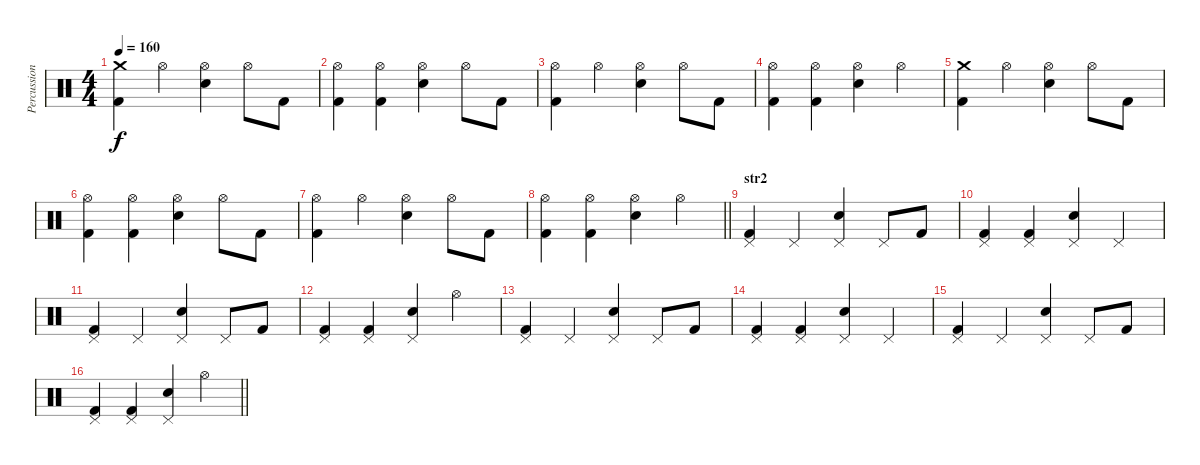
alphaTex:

\track ("Percussioni" "Percussion") {instrument percussion}
\staff {score}
\articulation defaults
\ts (4 4)
\tempo 160
\clef neutral
\ks c
("Crash medium (hit)" "Kick (hit) 2").4{dy f} "Hi-Hat (open)".4 ("Hi-Hat (open)" "Snare (hit) 2").4 "Hi-Hat (open)".8 "Kick (hit) 2".8 |
("Hi-Hat (open)" "Kick (hit) 2").4 ("Hi-Hat (open)" "Kick (hit) 2").4 ("Hi-Hat (open)" "Snare (hit) 2").4 "Hi-Hat (open)".8 "Kick (hit) 2".8 |
("Hi-Hat (open)" "Kick (hit) 2").4 "Hi-Hat (open)".4 ("Hi-Hat (open)" "Snare (hit) 2").4 "Hi-Hat (open)".8 "Kick (hit) 2".8 |
("Hi-Hat (open)" "Kick (hit) 2").4 ("Hi-Hat (open)" "Kick (hit) 2").4 ("Hi-Hat (open)" "Snare (hit) 2").4 "Hi-Hat (open)".4 |
("Crash medium (hit)" "Kick (hit) 2").4 "Hi-Hat (open)".4 ("Hi-Hat (open)" "Snare (hit) 2").4 "Hi-Hat (open)".8 "Kick (hit) 2".8 |
("Hi-Hat (open)" "Kick (hit) 2").4 ("Hi-Hat (open)" "Kick (hit) 2").4 ("Hi-Hat (open)" "Snare (hit) 2").4 "Hi-Hat (open)".8 "Kick (hit) 2".8 |
("Hi-Hat (open)" "Kick (hit) 2").4 "Hi-Hat (open)".4 ("Hi-Hat (open)" "Snare (hit) 2").4 "Hi-Hat (open)".8 "Kick (hit) 2".8 |
\barLineRight lightlight
("Hi-Hat (open)" "Kick (hit) 2").4 ("Hi-Hat (open)" "Kick (hit) 2").4 ("Hi-Hat (open)" "Snare (hit) 2").4 "Hi-Hat (open)".4 |
\section ("" "str2")
("Pedal Hi-Hat (hit)" "Kick (hit) 2").4 "Pedal Hi-Hat (hit)".4 ("Pedal Hi-Hat (hit)" "Snare (hit) 2").4 "Pedal Hi-Hat (hit)".8 "Kick (hit) 2".8 |
("Pedal Hi-Hat (hit)" "Kick (hit) 2").4 ("Pedal Hi-Hat (hit)" "Kick (hit) 2").4 ("Pedal Hi-Hat (hit)" "Snare (hit) 2").4 "Pedal Hi-Hat (hit)".4 |
("Pedal Hi-Hat (hit)" "Kick (hit) 2").4 "Pedal Hi-Hat (hit)".4 ("Pedal Hi-Hat (hit)" "Snare (hit) 2").4 "Pedal Hi-Hat (hit)".8 "Kick (hit) 2".8 |
("Pedal Hi-Hat (hit)" "Kick (hit) 2").4 ("Pedal Hi-Hat (hit)" "Kick (hit) 2").4 ("Pedal Hi-Hat (hit)" "Snare (hit) 2").4 "Hi-Hat (open)".4 |
("Pedal Hi-Hat (hit)" "Kick (hit) 2").4 "Pedal Hi-Hat (hit)".4 ("Pedal Hi-Hat (hit)" "Snare (hit) 2").4 "Pedal Hi-Hat (hit)".8 "Kick (hit) 2".8 |
("Pedal Hi-Hat (hit)" "Kick (hit) 2").4 ("Pedal Hi-Hat (hit)" "Kick (hit) 2").4 ("Pedal Hi-Hat (hit)" "Snare (hit) 2").4 "Pedal Hi-Hat (hit)".4 |
("Pedal Hi-Hat (hit)" "Kick (hit) 2").4 "Pedal Hi-Hat (hit)".4 ("Pedal Hi-Hat (hit)" "Snare (hit) 2").4 "Pedal Hi-Hat (hit)".8 "Kick (hit) 2".8 |
\barLineRight lightlight
("Pedal Hi-Hat (hit)" "Kick (hit) 2").4 ("Pedal Hi-Hat (hit)" "Kick (hit) 2").4 ("Pedal Hi-Hat (hit)" "Snare (hit) 2").4 "Hi-Hat (open)".4
